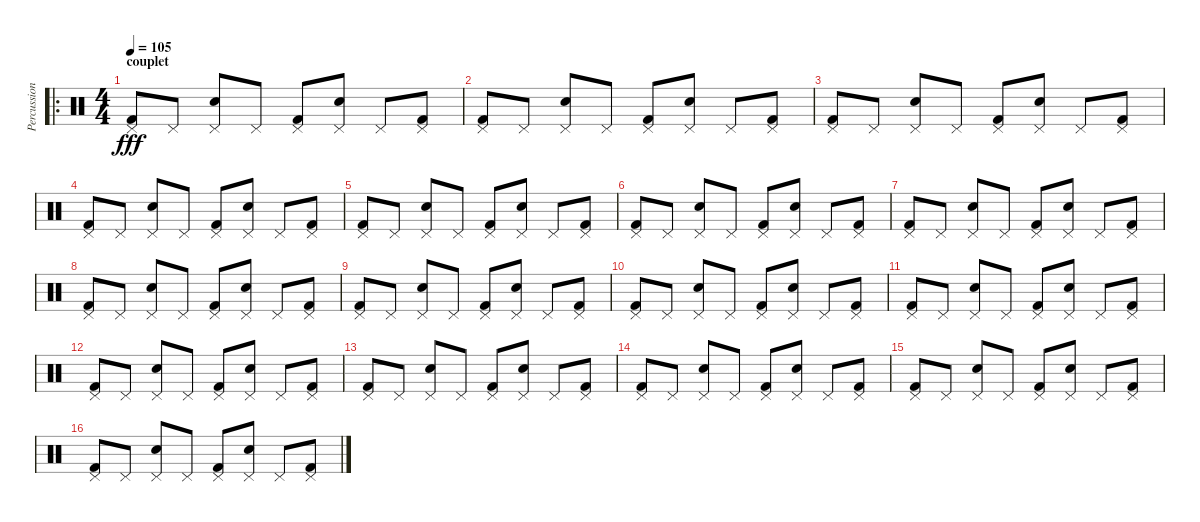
\track ("Percussions" "Percussion") {instrument percussion}
\staff {score}
\articulation defaults
\ro
\ts (4 4)
\section ("" "couplet")
\tempo 105
\clef neutral
\ks c
("Pedal Hi-Hat (hit)" "Kick (hit) 2").8{dy fff} "Pedal Hi-Hat (hit)".8 ("Pedal Hi-Hat (hit)" "Electric Snare (hit)").8 "Pedal Hi-Hat (hit)".8 ("Pedal Hi-Hat (hit)" "Kick (hit) 2").8 ("Pedal Hi-Hat (hit)" "Electric Snare (hit)").8 "Pedal Hi-Hat (hit)".8 ("Pedal Hi-Hat (hit)" "Kick (hit) 2").8 |
("Pedal Hi-Hat (hit)" "Kick (hit) 2").8 "Pedal Hi-Hat (hit)".8 ("Pedal Hi-Hat (hit)" "Electric Snare (hit)").8 "Pedal Hi-Hat (hit)".8 ("Pedal Hi-Hat (hit)" "Kick (hit) 2").8 ("Pedal Hi-Hat (hit)" "Electric Snare (hit)").8 "Pedal Hi-Hat (hit)".8 ("Pedal Hi-Hat (hit)" "Kick (hit) 2").8 |
("Pedal Hi-Hat (hit)" "Kick (hit) 2").8 "Pedal Hi-Hat (hit)".8 ("Pedal Hi-Hat (hit)" "Electric Snare (hit)").8 "Pedal Hi-Hat (hit)".8 ("Pedal Hi-Hat (hit)" "Kick (hit) 2").8 ("Pedal Hi-Hat (hit)" "Electric Snare (hit)").8 "Pedal Hi-Hat (hit)".8 ("Pedal Hi-Hat (hit)" "Kick (hit) 2").8 |
("Pedal Hi-Hat (hit)" "Kick (hit) 2").8 "Pedal Hi-Hat (hit)".8 ("Pedal Hi-Hat (hit)" "Electric Snare (hit)").8 "Pedal Hi-Hat (hit)".8 ("Pedal Hi-Hat (hit)" "Kick (hit) 2").8 ("Pedal Hi-Hat (hit)" "Electric Snare (hit)").8 "Pedal Hi-Hat (hit)".8 ("Pedal Hi-Hat (hit)" "Kick (hit) 2").8 |
("Pedal Hi-Hat (hit)" "Kick (hit) 2").8 "Pedal Hi-Hat (hit)".8 ("Pedal Hi-Hat (hit)" "Electric Snare (hit)").8 "Pedal Hi-Hat (hit)".8 ("Pedal Hi-Hat (hit)" "Kick (hit) 2").8 ("Pedal Hi-Hat (hit)" "Electric Snare (hit)").8 "Pedal Hi-Hat (hit)".8 ("Pedal Hi-Hat (hit)" "Kick (hit) 2").8 |
("Pedal Hi-Hat (hit)" "Kick (hit) 2").8 "Pedal Hi-Hat (hit)".8 ("Pedal Hi-Hat (hit)" "Electric Snare (hit)").8 "Pedal Hi-Hat (hit)".8 ("Pedal Hi-Hat (hit)" "Kick (hit) 2").8 ("Pedal Hi-Hat (hit)" "Electric Snare (hit)").8 "Pedal Hi-Hat (hit)".8 ("Pedal Hi-Hat (hit)" "Kick (hit) 2").8 |
("Pedal Hi-Hat (hit)" "Kick (hit) 2").8 "Pedal Hi-Hat (hit)".8 ("Pedal Hi-Hat (hit)" "Electric Snare (hit)").8 "Pedal Hi-Hat (hit)".8 ("Pedal Hi-Hat (hit)" "Kick (hit) 2").8 ("Pedal Hi-Hat (hit)" "Electric Snare (hit)").8 "Pedal Hi-Hat (hit)".8 ("Pedal Hi-Hat (hit)" "Kick (hit) 2").8 |
("Pedal Hi-Hat (hit)" "Kick (hit) 2").8 "Pedal Hi-Hat (hit)".8 ("Pedal Hi-Hat (hit)" "Electric Snare (hit)").8 "Pedal Hi-Hat (hit)".8 ("Pedal Hi-Hat (hit)" "Kick (hit) 2").8 ("Pedal Hi-Hat (hit)" "Electric Snare (hit)").8 "Pedal Hi-Hat (hit)".8 ("Pedal Hi-Hat (hit)" "Kick (hit) 2").8 |
("Pedal Hi-Hat (hit)" "Kick (hit) 2").8 "Pedal Hi-Hat (hit)".8 ("Pedal Hi-Hat (hit)" "Electric Snare (hit)").8 "Pedal Hi-Hat (hit)".8 ("Pedal Hi-Hat (hit)" "Kick (hit) 2").8 ("Pedal Hi-Hat (hit)" "Electric Snare (hit)").8 "Pedal Hi-Hat (hit)".8 ("Pedal Hi-Hat (hit)" "Kick (hit) 2").8 |
("Pedal Hi-Hat (hit)" "Kick (hit) 2").8 "Pedal Hi-Hat (hit)".8 ("Pedal Hi-Hat (hit)" "Electric Snare (hit)").8 "Pedal Hi-Hat (hit)".8 ("Pedal Hi-Hat (hit)" "Kick (hit) 2").8 ("Pedal Hi-Hat (hit)" "Electric Snare (hit)").8 "Pedal Hi-Hat (hit)".8 ("Pedal Hi-Hat (hit)" "Kick (hit) 2").8 |
("Pedal Hi-Hat (hit)" "Kick (hit) 2").8 "Pedal Hi-Hat (hit)".8 ("Pedal Hi-Hat (hit)" "Electric Snare (hit)").8 "Pedal Hi-Hat (hit)".8 ("Pedal Hi-Hat (hit)" "Kick (hit) 2").8 ("Pedal Hi-Hat (hit)" "Electric Snare (hit)").8 "Pedal Hi-Hat (hit)".8 ("Pedal Hi-Hat (hit)" "Kick (hit) 2").8 |
("Pedal Hi-Hat (hit)" "Kick (hit) 2").8 "Pedal Hi-Hat (hit)".8 ("Pedal Hi-Hat (hit)" "Electric Snare (hit)").8 "Pedal Hi-Hat (hit)".8 ("Pedal Hi-Hat (hit)" "Kick (hit) 2").8 ("Pedal Hi-Hat (hit)" "Electric Snare (hit)").8 "Pedal Hi-Hat (hit)".8 ("Pedal Hi-Hat (hit)" "Kick (hit) 2").8 |
("Pedal Hi-Hat (hit)" "Kick (hit) 2").8 "Pedal Hi-Hat (hit)".8 ("Pedal Hi-Hat (hit)" "Electric Snare (hit)").8 "Pedal Hi-Hat (hit)".8 ("Pedal Hi-Hat (hit)" "Kick (hit) 2").8 ("Pedal Hi-Hat (hit)" "Electric Snare (hit)").8 "Pedal Hi-Hat (hit)".8 ("Pedal Hi-Hat (hit)" "Kick (hit) 2").8 |
("Pedal Hi-Hat (hit)" "Kick (hit) 2").8 "Pedal Hi-Hat (hit)".8 ("Pedal Hi-Hat (hit)" "Electric Snare (hit)").8 "Pedal Hi-Hat (hit)".8 ("Pedal Hi-Hat (hit)" "Kick (hit) 2").8 ("Pedal Hi-Hat (hit)" "Electric Snare (hit)").8 "Pedal Hi-Hat (hit)".8 ("Pedal Hi-Hat (hit)" "Kick (hit) 2").8 |
("Pedal Hi-Hat (hit)" "Kick (hit) 2").8 "Pedal Hi-Hat (hit)".8 ("Pedal Hi-Hat (hit)" "Electric Snare (hit)").8 "Pedal Hi-Hat (hit)".8 ("Pedal Hi-Hat (hit)" "Kick (hit) 2").8 ("Pedal Hi-Hat (hit)" "Electric Snare (hit)").8 "Pedal Hi-Hat (hit)".8 ("Pedal Hi-Hat (hit)" "Kick (hit) 2").8 |
("Pedal Hi-Hat (hit)" "Kick (hit) 2").8 "Pedal Hi-Hat (hit)".8 ("Pedal Hi-Hat (hit)" "Electric Snare (hit)").8 "Pedal Hi-Hat (hit)".8 ("Pedal Hi-Hat (hit)" "Kick (hit) 2").8 ("Pedal Hi-Hat (hit)" "Electric Snare (hit)").8 "Pedal Hi-Hat (hit)".8 ("Pedal Hi-Hat (hit)" "Kick (hit) 2").8
